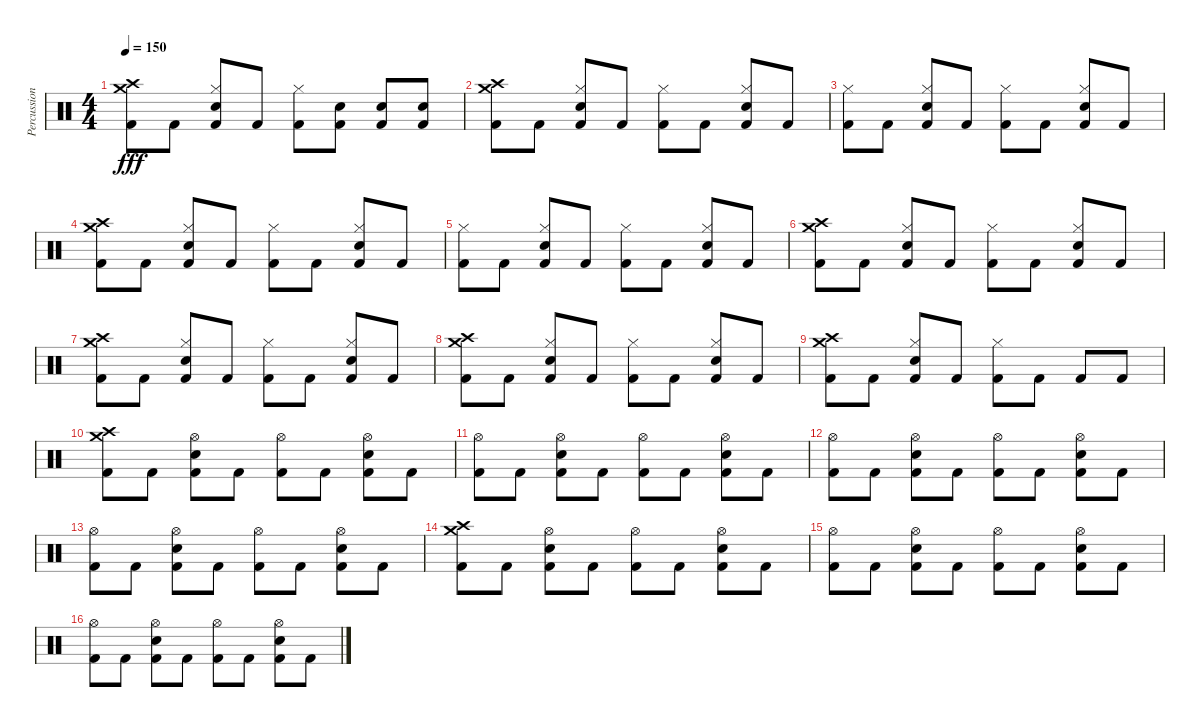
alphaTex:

\track ("Percussion" "Percussion") {instrument percussion}
\staff {score}
\articulation defaults
\ts (4 4)
\tempo 150
\clef neutral
\ks c
("Crash high (hit)" "Crash medium (hit)" "Kick (hit) 2").8{dy fff} "Kick (hit) 2".8 ("Hi-Hat (closed)" "Electric Snare (hit)" "Kick (hit) 2").8 "Kick (hit) 2".8 ("Hi-Hat (closed)" "Kick (hit) 2").8 ("Electric Snare (hit)" "Kick (hit) 2").8 ("Electric Snare (hit)" "Kick (hit) 2").8 ("Electric Snare (hit)" "Kick (hit) 2").8 |
("Crash high (hit)" "Crash medium (hit)" "Kick (hit) 2").8 "Kick (hit) 2".8 ("Hi-Hat (closed)" "Electric Snare (hit)" "Kick (hit) 2").8 "Kick (hit) 2".8 ("Hi-Hat (closed)" "Kick (hit) 2").8 "Kick (hit) 2".8 ("Hi-Hat (closed)" "Electric Snare (hit)" "Kick (hit) 2").8 "Kick (hit) 2".8 |
("Hi-Hat (closed)" "Kick (hit) 2").8 "Kick (hit) 2".8 ("Hi-Hat (closed)" "Electric Snare (hit)" "Kick (hit) 2").8 "Kick (hit) 2".8 ("Hi-Hat (closed)" "Kick (hit) 2").8 "Kick (hit) 2".8 ("Hi-Hat (closed)" "Electric Snare (hit)" "Kick (hit) 2").8 "Kick (hit) 2".8 |
("Crash high (hit)" "Crash medium (hit)" "Kick (hit) 2").8 "Kick (hit) 2".8 ("Hi-Hat (closed)" "Electric Snare (hit)" "Kick (hit) 2").8 "Kick (hit) 2".8 ("Hi-Hat (closed)" "Kick (hit) 2").8 "Kick (hit) 2".8 ("Hi-Hat (closed)" "Electric Snare (hit)" "Kick (hit) 2").8 "Kick (hit) 2".8 |
("Hi-Hat (closed)" "Kick (hit) 2").8 "Kick (hit) 2".8 ("Hi-Hat (closed)" "Electric Snare (hit)" "Kick (hit) 2").8 "Kick (hit) 2".8 ("Hi-Hat (closed)" "Kick (hit) 2").8 "Kick (hit) 2".8 ("Hi-Hat (closed)" "Electric Snare (hit)" "Kick (hit) 2").8 "Kick (hit) 2".8 |
("Crash high (hit)" "Crash medium (hit)" "Kick (hit) 2").8 "Kick (hit) 2".8 ("Hi-Hat (closed)" "Electric Snare (hit)" "Kick (hit) 2").8 "Kick (hit) 2".8 ("Hi-Hat (closed)" "Kick (hit) 2").8 "Kick (hit) 2".8 ("Hi-Hat (closed)" "Electric Snare (hit)" "Kick (hit) 2").8 "Kick (hit) 2".8 |
("Crash high (hit)" "Crash medium (hit)" "Kick (hit) 2").8 "Kick (hit) 2".8 ("Hi-Hat (closed)" "Electric Snare (hit)" "Kick (hit) 2").8 "Kick (hit) 2".8 ("Hi-Hat (closed)" "Kick (hit) 2").8 "Kick (hit) 2".8 ("Hi-Hat (closed)" "Electric Snare (hit)" "Kick (hit) 2").8 "Kick (hit) 2".8 |
("Crash high (hit)" "Crash medium (hit)" "Kick (hit) 2").8 "Kick (hit) 2".8 ("Hi-Hat (closed)" "Electric Snare (hit)" "Kick (hit) 2").8 "Kick (hit) 2".8 ("Hi-Hat (closed)" "Kick (hit) 2").8 "Kick (hit) 2".8 ("Hi-Hat (closed)" "Electric Snare (hit)" "Kick (hit) 2").8 "Kick (hit) 2".8 |
("Crash high (hit)" "Crash medium (hit)" "Kick (hit) 2").8 "Kick (hit) 2".8 ("Hi-Hat (closed)" "Electric Snare (hit)" "Kick (hit) 2").8 "Kick (hit) 2".8 ("Hi-Hat (closed)" "Kick (hit) 2").8 "Kick (hit) 2".8 "Kick (hit) 2".8 "Kick (hit) 2".8 |
("Crash high (hit)" "Crash medium (hit)" "Kick (hit) 2").8 "Kick (hit) 2".8 ("Hi-Hat (open)" "Electric Snare (hit)" "Kick (hit) 2").8 "Kick (hit) 2".8 ("Hi-Hat (open)" "Kick (hit) 2").8 "Kick (hit) 2".8 ("Hi-Hat (open)" "Electric Snare (hit)" "Kick (hit) 2").8 "Kick (hit) 2".8 |
("Hi-Hat (open)" "Kick (hit) 2").8 "Kick (hit) 2".8 ("Hi-Hat (open)" "Electric Snare (hit)" "Kick (hit) 2").8 "Kick (hit) 2".8 ("Hi-Hat (open)" "Kick (hit) 2").8 "Kick (hit) 2".8 ("Hi-Hat (open)" "Electric Snare (hit)" "Kick (hit) 2").8 "Kick (hit) 2".8 |
("Hi-Hat (open)" "Kick (hit) 2").8 "Kick (hit) 2".8 ("Hi-Hat (open)" "Electric Snare (hit)" "Kick (hit) 2").8 "Kick (hit) 2".8 ("Hi-Hat (open)" "Kick (hit) 2").8 "Kick (hit) 2".8 ("Hi-Hat (open)" "Electric Snare (hit)" "Kick (hit) 2").8 "Kick (hit) 2".8 |
("Hi-Hat (open)" "Kick (hit) 2").8 "Kick (hit) 2".8 ("Hi-Hat (open)" "Electric Snare (hit)" "Kick (hit) 2").8 "Kick (hit) 2".8 ("Hi-Hat (open)" "Kick (hit) 2").8 "Kick (hit) 2".8 ("Hi-Hat (open)" "Electric Snare (hit)" "Kick (hit) 2").8 "Kick (hit) 2".8 |
("Crash high (hit)" "Crash medium (hit)" "Kick (hit) 2").8 "Kick (hit) 2".8 ("Hi-Hat (open)" "Electric Snare (hit)" "Kick (hit) 2").8 "Kick (hit) 2".8 ("Hi-Hat (open)" "Kick (hit) 2").8 "Kick (hit) 2".8 ("Hi-Hat (open)" "Electric Snare (hit)" "Kick (hit) 2").8 "Kick (hit) 2".8 |
("Hi-Hat (open)" "Kick (hit) 2").8 "Kick (hit) 2".8 ("Hi-Hat (open)" "Electric Snare (hit)" "Kick (hit) 2").8 "Kick (hit) 2".8 ("Hi-Hat (open)" "Kick (hit) 2").8 "Kick (hit) 2".8 ("Hi-Hat (open)" "Electric Snare (hit)" "Kick (hit) 2").8 "Kick (hit) 2".8 |
("Hi-Hat (open)" "Kick (hit) 2").8 "Kick (hit) 2".8 ("Hi-Hat (open)" "Electric Snare (hit)" "Kick (hit) 2").8 "Kick (hit) 2".8 ("Hi-Hat (open)" "Kick (hit) 2").8 "Kick (hit) 2".8 ("Hi-Hat (open)" "Electric Snare (hit)" "Kick (hit) 2").8 "Kick (hit) 2".8
